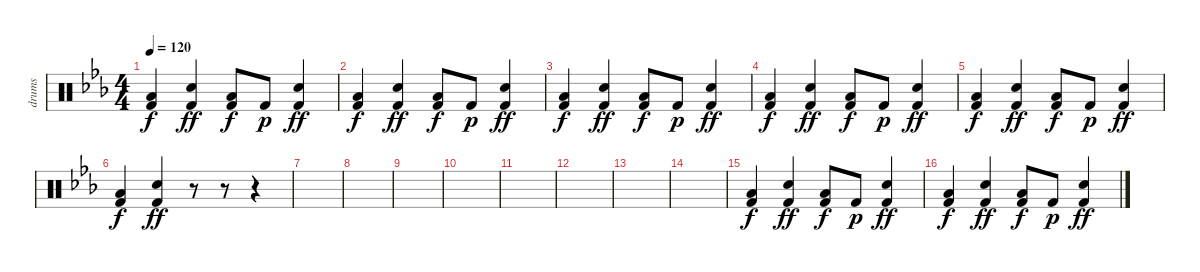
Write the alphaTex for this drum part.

\track ("drums" "drums") {instrument percussion}
\staff {score}
\articulation defaults
\ts (4 4)
\tempo 120
\clef neutral
\ks cminor
("Kick (hit) 2" "Low Floor Tom (hit)").4{dy f} ("Kick (hit) 2" "Hand Clap (hit)").4{dy ff} ("Kick (hit) 2" "Low Floor Tom (hit)").8{dy f} "Kick (hit) 2".8{dy p} ("Kick (hit) 2" "Hand Clap (hit)").4{dy ff} |
("Kick (hit) 2" "Low Floor Tom (hit)").4{dy f} ("Kick (hit) 2" "Hand Clap (hit)").4{dy ff} ("Kick (hit) 2" "Low Floor Tom (hit)").8{dy f} "Kick (hit) 2".8{dy p} ("Kick (hit) 2" "Hand Clap (hit)").4{dy ff} |
("Kick (hit) 2" "Low Floor Tom (hit)").4{dy f} ("Kick (hit) 2" "Hand Clap (hit)").4{dy ff} ("Kick (hit) 2" "Low Floor Tom (hit)").8{dy f} "Kick (hit) 2".8{dy p} ("Kick (hit) 2" "Hand Clap (hit)").4{dy ff} |
("Kick (hit) 2" "Low Floor Tom (hit)").4{dy f} ("Kick (hit) 2" "Hand Clap (hit)").4{dy ff} ("Kick (hit) 2" "Low Floor Tom (hit)").8{dy f} "Kick (hit) 2".8{dy p} ("Kick (hit) 2" "Hand Clap (hit)").4{dy ff} |
("Kick (hit) 2" "Low Floor Tom (hit)").4{dy f} ("Kick (hit) 2" "Hand Clap (hit)").4{dy ff} ("Kick (hit) 2" "Low Floor Tom (hit)").8{dy f} "Kick (hit) 2".8{dy p} ("Kick (hit) 2" "Hand Clap (hit)").4{dy ff} |
("Kick (hit) 2" "Low Floor Tom (hit)").4{dy f} ("Kick (hit) 2" "Hand Clap (hit)").4{dy ff} r.8 r.8 r.4 |
|
|
|
|
|
|
|
|
("Kick (hit) 2" "Low Floor Tom (hit)").4{dy f} ("Kick (hit) 2" "Hand Clap (hit)").4{dy ff} ("Kick (hit) 2" "Low Floor Tom (hit)").8{dy f} "Kick (hit) 2".8{dy p} ("Kick (hit) 2" "Hand Clap (hit)").4{dy ff} |
("Kick (hit) 2" "Low Floor Tom (hit)").4{dy f} ("Kick (hit) 2" "Hand Clap (hit)").4{dy ff} ("Kick (hit) 2" "Low Floor Tom (hit)").8{dy f} "Kick (hit) 2".8{dy p} ("Kick (hit) 2" "Hand Clap (hit)").4{dy ff}
